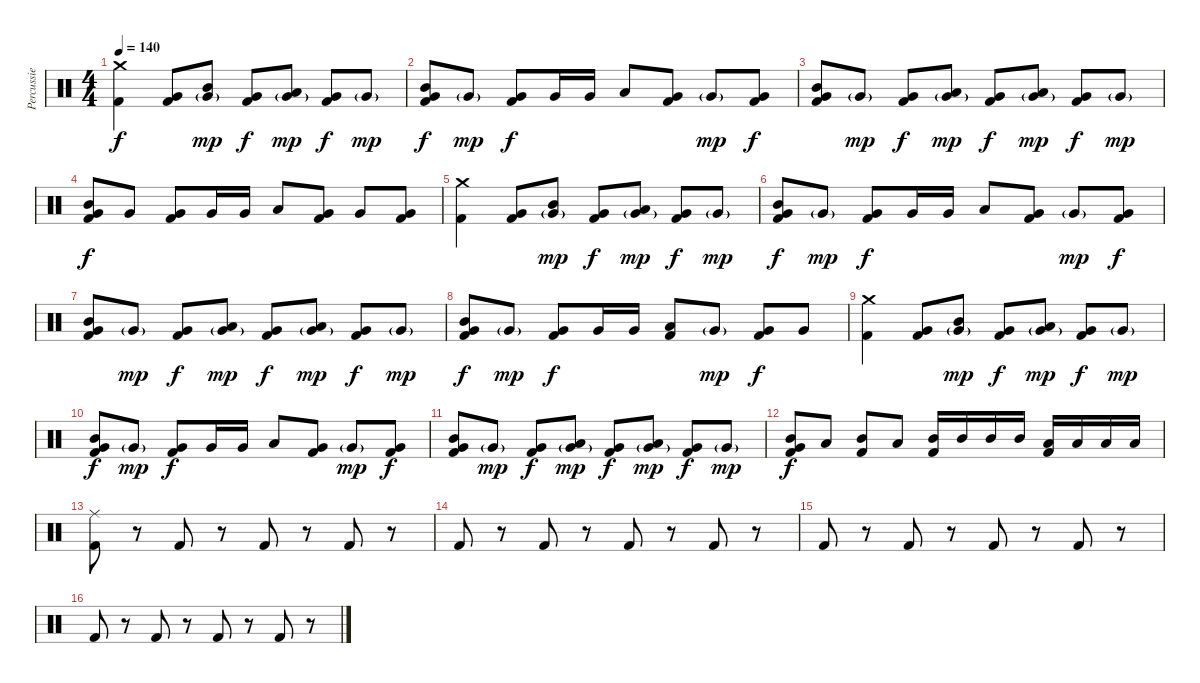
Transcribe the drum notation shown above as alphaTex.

\track ("Percussie" "Percussie") {instrument percussion}
\staff {score}
\articulation defaults
\ts (4 4)
\tempo 140
\clef neutral
\ks c
("Crash medium (hit)" "Kick (hit) 2").4{dy f} ("Very Low Tom (hit)" "Kick (hit) 2").8 ("Mid Tom (hit)" "Very Low Tom (hit)"{g}).8{dy mp} ("Very Low Tom (hit)" "Kick (hit) 2").8{dy f} ("Low Tom (hit)" "Very Low Tom (hit)"{g}).8{dy mp} ("Very Low Tom (hit)" "Kick (hit) 2").8{dy f} "Very Low Tom (hit)"{g}.8{dy mp} |
("Mid Tom (hit)" "Very Low Tom (hit)" "Kick (hit) 2").8{dy f} "Very Low Tom (hit)"{g}.8{dy mp} ("Very Low Tom (hit)" "Kick (hit) 2").8{dy f} "Very Low Tom (hit)".16 "Very Low Tom (hit)".16 "Low Tom (hit)".8 ("Very Low Tom (hit)" "Kick (hit) 2").8 "Very Low Tom (hit)"{g}.8{dy mp} ("Very Low Tom (hit)" "Kick (hit) 2").8{dy f} |
("Mid Tom (hit)" "Very Low Tom (hit)" "Kick (hit) 2").8 "Very Low Tom (hit)"{g}.8{dy mp} ("Very Low Tom (hit)" "Kick (hit) 2").8{dy f} ("Low Tom (hit)" "Very Low Tom (hit)"{g}).8{dy mp} ("Very Low Tom (hit)" "Kick (hit) 2").8{dy f} ("Low Tom (hit)" "Very Low Tom (hit)"{g}).8{dy mp} ("Very Low Tom (hit)" "Kick (hit) 2").8{dy f} "Very Low Tom (hit)"{g}.8{dy mp} |
("Mid Tom (hit)" "Very Low Tom (hit)" "Kick (hit) 2").8{dy f} "Very Low Tom (hit)".8 ("Very Low Tom (hit)" "Kick (hit) 2").8 "Very Low Tom (hit)".16 "Very Low Tom (hit)".16 "Low Tom (hit)".8 ("Very Low Tom (hit)" "Kick (hit) 2").8 "Very Low Tom (hit)".8 ("Very Low Tom (hit)" "Kick (hit) 2").8 |
("Crash medium (hit)" "Kick (hit) 2").4 ("Very Low Tom (hit)" "Kick (hit) 2").8 ("Mid Tom (hit)" "Very Low Tom (hit)"{g}).8{dy mp} ("Very Low Tom (hit)" "Kick (hit) 2").8{dy f} ("Low Tom (hit)" "Very Low Tom (hit)"{g}).8{dy mp} ("Very Low Tom (hit)" "Kick (hit) 2").8{dy f} "Very Low Tom (hit)"{g}.8{dy mp} |
("Mid Tom (hit)" "Very Low Tom (hit)" "Kick (hit) 2").8{dy f} "Very Low Tom (hit)"{g}.8{dy mp} ("Very Low Tom (hit)" "Kick (hit) 2").8{dy f} "Very Low Tom (hit)".16 "Very Low Tom (hit)".16 "Low Tom (hit)".8 ("Very Low Tom (hit)" "Kick (hit) 2").8 "Very Low Tom (hit)"{g}.8{dy mp} ("Very Low Tom (hit)" "Kick (hit) 2").8{dy f} |
("Mid Tom (hit)" "Very Low Tom (hit)" "Kick (hit) 2").8 "Very Low Tom (hit)"{g}.8{dy mp} ("Very Low Tom (hit)" "Kick (hit) 2").8{dy f} ("Low Tom (hit)" "Very Low Tom (hit)"{g}).8{dy mp} ("Very Low Tom (hit)" "Kick (hit) 2").8{dy f} ("Low Tom (hit)" "Very Low Tom (hit)"{g}).8{dy mp} ("Very Low Tom (hit)" "Kick (hit) 2").8{dy f} "Very Low Tom (hit)"{g}.8{dy mp} |
("Mid Tom (hit)" "Very Low Tom (hit)" "Kick (hit) 2").8{dy f} "Very Low Tom (hit)"{g}.8{dy mp} ("Very Low Tom (hit)" "Kick (hit) 2").8{dy f} "Very Low Tom (hit)".16 "Very Low Tom (hit)".16 ("Low Tom (hit)" "Kick (hit) 2").8 "Very Low Tom (hit)"{g}.8{dy mp} ("Very Low Tom (hit)" "Kick (hit) 2").8{dy f} "Very Low Tom (hit)".8 |
("Crash medium (hit)" "Kick (hit) 2").4 ("Very Low Tom (hit)" "Kick (hit) 2").8 ("Mid Tom (hit)" "Very Low Tom (hit)"{g}).8{dy mp} ("Very Low Tom (hit)" "Kick (hit) 2").8{dy f} ("Low Tom (hit)" "Very Low Tom (hit)"{g}).8{dy mp} ("Very Low Tom (hit)" "Kick (hit) 2").8{dy f} "Very Low Tom (hit)"{g}.8{dy mp} |
("Mid Tom (hit)" "Very Low Tom (hit)" "Kick (hit) 2").8{dy f} "Very Low Tom (hit)"{g}.8{dy mp} ("Very Low Tom (hit)" "Kick (hit) 2").8{dy f} "Very Low Tom (hit)".16 "Very Low Tom (hit)".16 "Low Tom (hit)".8 ("Very Low Tom (hit)" "Kick (hit) 2").8 "Very Low Tom (hit)"{g}.8{dy mp} ("Very Low Tom (hit)" "Kick (hit) 2").8{dy f} |
("Mid Tom (hit)" "Very Low Tom (hit)" "Kick (hit) 2").8 "Very Low Tom (hit)"{g}.8{dy mp} ("Very Low Tom (hit)" "Kick (hit) 2").8{dy f} ("Low Tom (hit)" "Very Low Tom (hit)"{g}).8{dy mp} ("Very Low Tom (hit)" "Kick (hit) 2").8{dy f} ("Low Tom (hit)" "Very Low Tom (hit)"{g}).8{dy mp} ("Very Low Tom (hit)" "Kick (hit) 2").8{dy f} "Very Low Tom (hit)"{g}.8{dy mp} |
("Mid Tom (hit)" "Very Low Tom (hit)" "Kick (hit) 2").8{dy f} "Low Tom (hit)".8 ("Mid Tom (hit)" "Kick (hit) 2").8 "Low Tom (hit)".8 ("Mid Tom (hit)" "Kick (hit) 2").16 "Mid Tom (hit)".16 "Mid Tom (hit)".16 "Mid Tom (hit)".16 ("Low Tom (hit)" "Kick (hit) 2").16 "Low Tom (hit)".16 "Low Tom (hit)".16 "Low Tom (hit)".16 |
("Ride (middle)" "Kick (hit) 2").8 r.8 "Kick (hit) 2".8 r.8 "Kick (hit) 2".8 r.8 "Kick (hit) 2".8 r.8 |
"Kick (hit) 2".8 r.8 "Kick (hit) 2".8 r.8 "Kick (hit) 2".8 r.8 "Kick (hit) 2".8 r.8 |
"Kick (hit) 2".8 r.8 "Kick (hit) 2".8 r.8 "Kick (hit) 2".8 r.8 "Kick (hit) 2".8 r.8 |
"Kick (hit) 2".8 r.8 "Kick (hit) 2".8 r.8 "Kick (hit) 2".8 r.8 "Kick (hit) 2".8 r.8
